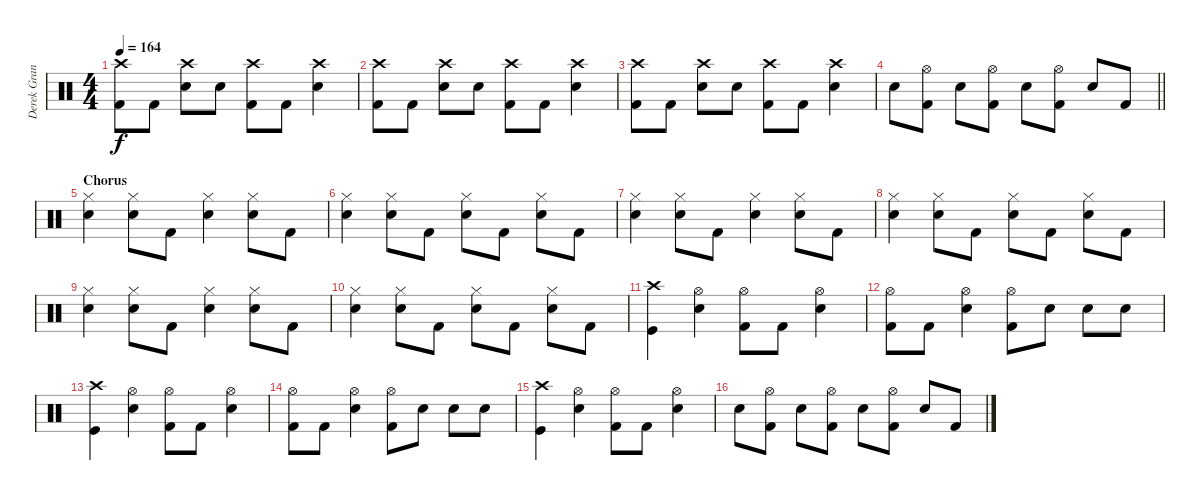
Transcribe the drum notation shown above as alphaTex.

\track ("Derek Grant - Drums" "Derek Gran") {instrument percussion}
\staff {score}
\articulation defaults
\ts (4 4)
\tempo 164
\clef neutral
\ks c
("Kick (hit) 2" "Crash high (hit)").8{dy f} "Kick (hit) 2".8 ("Snare (hit) 2" "Crash high (hit)").8 "Snare (hit) 2".8 ("Kick (hit) 2" "Crash high (hit)").8 "Kick (hit) 2".8 ("Snare (hit) 2" "Crash high (hit)").4 |
("Kick (hit) 2" "Crash high (hit)").8 "Kick (hit) 2".8 ("Snare (hit) 2" "Crash high (hit)").8 "Snare (hit) 2".8 ("Kick (hit) 2" "Crash high (hit)").8 "Kick (hit) 2".8 ("Snare (hit) 2" "Crash high (hit)").4 |
("Kick (hit) 2" "Crash high (hit)").8 "Kick (hit) 2".8 ("Snare (hit) 2" "Crash high (hit)").8 "Snare (hit) 2".8 ("Kick (hit) 2" "Crash high (hit)").8 "Kick (hit) 2".8 ("Snare (hit) 2" "Crash high (hit)").4 |
\barLineRight lightlight "Snare (hit) 2".8
("Kick (hit) 2" "Hi-Hat (open)").8 "Snare (hit) 2".8 ("Kick (hit) 2" "Hi-Hat (open)").8 "Snare (hit) 2".8 ("Kick (hit) 2" "Hi-Hat (open)").8 "Snare (hit) 2".8 "Kick (hit) 2".8 |
\section ("" "Chorus")
("Hi-Hat (closed)" "Snare (hit) 2").4 ("Hi-Hat (closed)" "Snare (hit) 2").8 "Kick (hit) 2".8 ("Hi-Hat (closed)" "Snare (hit) 2").4 ("Hi-Hat (closed)" "Snare (hit) 2").8 "Kick (hit) 2".8 |
("Hi-Hat (closed)" "Snare (hit) 2").4 ("Hi-Hat (closed)" "Snare (hit) 2").8 "Kick (hit) 2".8 ("Hi-Hat (closed)" "Snare (hit) 2").8 "Kick (hit) 2".8 ("Hi-Hat (closed)" "Snare (hit) 2").8 "Kick (hit) 2".8 |
("Hi-Hat (closed)" "Snare (hit) 2").4 ("Hi-Hat (closed)" "Snare (hit) 2").8 "Kick (hit) 2".8 ("Hi-Hat (closed)" "Snare (hit) 2").4 ("Hi-Hat (closed)" "Snare (hit) 2").8 "Kick (hit) 2".8 |
("Hi-Hat (closed)" "Snare (hit) 2").4 ("Hi-Hat (closed)" "Snare (hit) 2").8 "Kick (hit) 2".8 ("Hi-Hat (closed)" "Snare (hit) 2").8 "Kick (hit) 2".8 ("Hi-Hat (closed)" "Snare (hit) 2").8 "Kick (hit) 2".8 |
("Hi-Hat (closed)" "Snare (hit) 2").4 ("Hi-Hat (closed)" "Snare (hit) 2").8 "Kick (hit) 2".8 ("Hi-Hat (closed)" "Snare (hit) 2").4 ("Hi-Hat (closed)" "Snare (hit) 2").8 "Kick (hit) 2".8 |
("Hi-Hat (closed)" "Snare (hit) 2").4 ("Hi-Hat (closed)" "Snare (hit) 2").8 "Kick (hit) 2".8 ("Hi-Hat (closed)" "Snare (hit) 2").8 "Kick (hit) 2".8 ("Hi-Hat (closed)" "Snare (hit) 2").8 "Kick (hit) 2".8 |
("Crash high (hit)" "Kick (hit)").4 ("Snare (hit) 2" "Hi-Hat (open)").4 ("Kick (hit) 2" "Hi-Hat (open)").8 "Kick (hit) 2".8 ("Snare (hit) 2" "Hi-Hat (open)").4 |
("Kick (hit) 2" "Hi-Hat (open)").8 "Kick (hit) 2".8 ("Snare (hit) 2" "Hi-Hat (open)").4 ("Kick (hit) 2" "Hi-Hat (open)").8 "Snare (hit) 2".8 "Snare (hit) 2".8 "Snare (hit) 2".8 |
("Crash high (hit)" "Kick (hit)").4 ("Snare (hit) 2" "Hi-Hat (open)").4 ("Kick (hit) 2" "Hi-Hat (open)").8 "Kick (hit) 2".8 ("Snare (hit) 2" "Hi-Hat (open)").4 |
("Kick (hit) 2" "Hi-Hat (open)").8 "Kick (hit) 2".8 ("Snare (hit) 2" "Hi-Hat (open)").4 ("Kick (hit) 2" "Hi-Hat (open)").8 "Snare (hit) 2".8 "Snare (hit) 2".8 "Snare (hit) 2".8 |
("Crash high (hit)" "Kick (hit)").4 ("Snare (hit) 2" "Hi-Hat (open)").4 ("Kick (hit) 2" "Hi-Hat (open)").8 "Kick (hit) 2".8 ("Snare (hit) 2" "Hi-Hat (open)").4 |
"Snare (hit) 2".8 ("Kick (hit) 2" "Hi-Hat (open)").8 "Snare (hit) 2".8 ("Kick (hit) 2" "Hi-Hat (open)").8 "Snare (hit) 2".8 ("Kick (hit) 2" "Hi-Hat (open)").8 "Snare (hit) 2".8 "Kick (hit) 2".8
